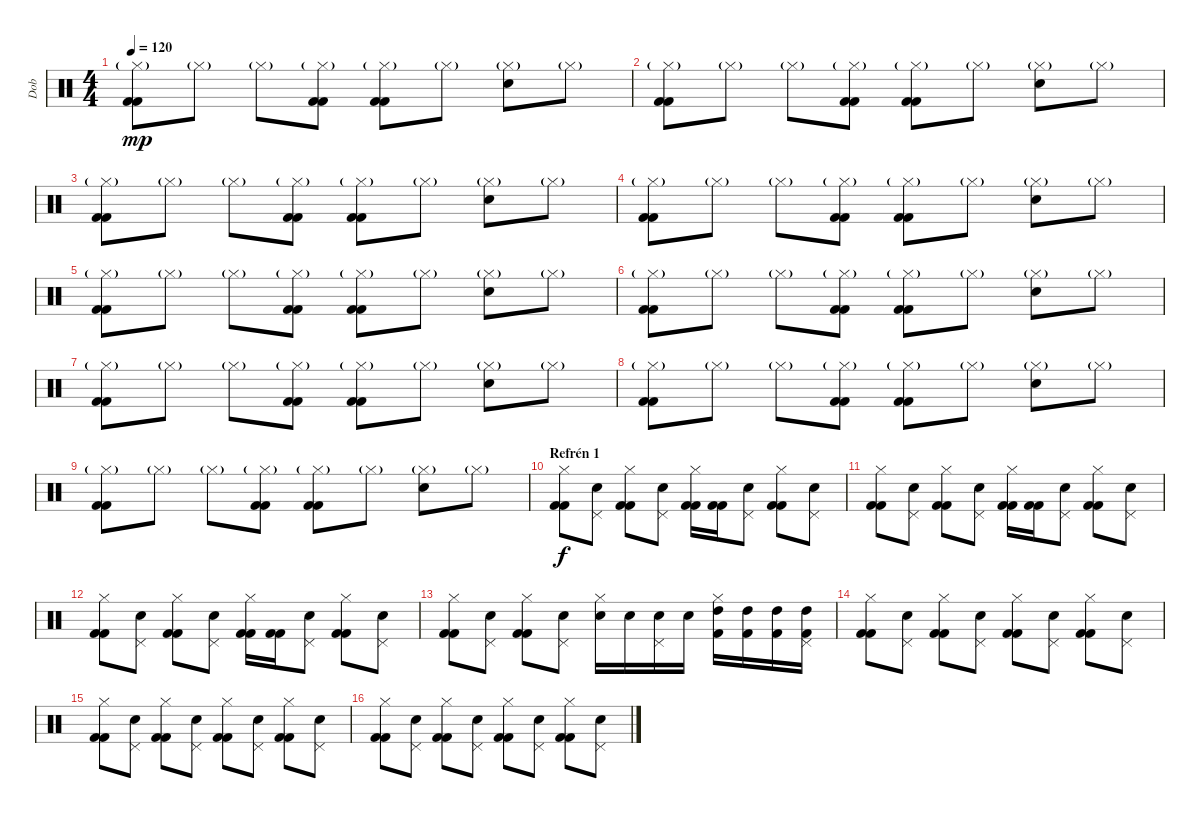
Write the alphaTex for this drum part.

\track ("Dob" "Dob") {instrument percussion}
\staff {score}
\articulation defaults
\ts (4 4)
\tempo 120
\clef neutral
\ks c
("Hi-Hat (closed)"{g} "Kick (hit) 2" "Kick (hit) 2").8{dy mp} "Hi-Hat (closed)"{g}.8 "Hi-Hat (closed)"{g}.8 ("Hi-Hat (closed)"{g} "Kick (hit) 2" "Kick (hit) 2").8 ("Hi-Hat (closed)"{g} "Kick (hit) 2" "Kick (hit) 2").8 "Hi-Hat (closed)"{g}.8 ("Hi-Hat (closed)"{g} "Snare (hit) 2").8 "Hi-Hat (closed)"{g}.8 |
("Hi-Hat (closed)"{g} "Kick (hit) 2" "Kick (hit) 2").8 "Hi-Hat (closed)"{g}.8 "Hi-Hat (closed)"{g}.8 ("Hi-Hat (closed)"{g} "Kick (hit) 2" "Kick (hit) 2").8 ("Hi-Hat (closed)"{g} "Kick (hit) 2" "Kick (hit) 2").8 "Hi-Hat (closed)"{g}.8 ("Hi-Hat (closed)"{g} "Snare (hit) 2").8 "Hi-Hat (closed)"{g}.8 |
("Hi-Hat (closed)"{g} "Kick (hit) 2" "Kick (hit) 2").8 "Hi-Hat (closed)"{g}.8 "Hi-Hat (closed)"{g}.8 ("Hi-Hat (closed)"{g} "Kick (hit) 2" "Kick (hit) 2").8 ("Hi-Hat (closed)"{g} "Kick (hit) 2" "Kick (hit) 2").8 "Hi-Hat (closed)"{g}.8 ("Hi-Hat (closed)"{g} "Snare (hit) 2").8 "Hi-Hat (closed)"{g}.8 |
("Hi-Hat (closed)"{g} "Kick (hit) 2" "Kick (hit) 2").8 "Hi-Hat (closed)"{g}.8 "Hi-Hat (closed)"{g}.8 ("Hi-Hat (closed)"{g} "Kick (hit) 2" "Kick (hit) 2").8 ("Hi-Hat (closed)"{g} "Kick (hit) 2" "Kick (hit) 2").8 "Hi-Hat (closed)"{g}.8 ("Hi-Hat (closed)"{g} "Snare (hit) 2").8 "Hi-Hat (closed)"{g}.8 |
("Hi-Hat (closed)"{g} "Kick (hit) 2" "Kick (hit) 2").8 "Hi-Hat (closed)"{g}.8 "Hi-Hat (closed)"{g}.8 ("Hi-Hat (closed)"{g} "Kick (hit) 2" "Kick (hit) 2").8 ("Hi-Hat (closed)"{g} "Kick (hit) 2" "Kick (hit) 2").8 "Hi-Hat (closed)"{g}.8 ("Hi-Hat (closed)"{g} "Snare (hit) 2").8 "Hi-Hat (closed)"{g}.8 |
("Hi-Hat (closed)"{g} "Kick (hit) 2" "Kick (hit) 2").8 "Hi-Hat (closed)"{g}.8 "Hi-Hat (closed)"{g}.8 ("Hi-Hat (closed)"{g} "Kick (hit) 2" "Kick (hit) 2").8 ("Hi-Hat (closed)"{g} "Kick (hit) 2" "Kick (hit) 2").8 "Hi-Hat (closed)"{g}.8 ("Hi-Hat (closed)"{g} "Snare (hit) 2").8 "Hi-Hat (closed)"{g}.8 |
("Hi-Hat (closed)"{g} "Kick (hit) 2" "Kick (hit) 2").8 "Hi-Hat (closed)"{g}.8 "Hi-Hat (closed)"{g}.8 ("Hi-Hat (closed)"{g} "Kick (hit) 2" "Kick (hit) 2").8 ("Hi-Hat (closed)"{g} "Kick (hit) 2" "Kick (hit) 2").8 "Hi-Hat (closed)"{g}.8 ("Hi-Hat (closed)"{g} "Snare (hit) 2").8 "Hi-Hat (closed)"{g}.8 |
("Hi-Hat (closed)"{g} "Kick (hit) 2" "Kick (hit) 2").8 "Hi-Hat (closed)"{g}.8 "Hi-Hat (closed)"{g}.8 ("Hi-Hat (closed)"{g} "Kick (hit) 2" "Kick (hit) 2").8 ("Hi-Hat (closed)"{g} "Kick (hit) 2" "Kick (hit) 2").8 "Hi-Hat (closed)"{g}.8 ("Hi-Hat (closed)"{g} "Snare (hit) 2").8 "Hi-Hat (closed)"{g}.8 |
("Hi-Hat (closed)"{g} "Kick (hit) 2" "Kick (hit) 2").8 "Hi-Hat (closed)"{g}.8 "Hi-Hat (closed)"{g}.8 ("Hi-Hat (closed)"{g} "Kick (hit) 2" "Kick (hit) 2").8 ("Hi-Hat (closed)"{g} "Kick (hit) 2" "Kick (hit) 2").8 "Hi-Hat (closed)"{g}.8 ("Hi-Hat (closed)"{g} "Snare (hit) 2").8 "Hi-Hat (closed)"{g}.8 |
\section ("" "Refrén 1")
("Hi-Hat (closed)" "Kick (hit) 2" "Kick (hit) 2").8{dy f} ("Pedal Hi-Hat (hit)" "Snare (hit) 2").8 ("Hi-Hat (closed)" "Kick (hit) 2" "Kick (hit) 2").8 ("Pedal Hi-Hat (hit)" "Snare (hit) 2").8 ("Hi-Hat (closed)" "Kick (hit) 2" "Kick (hit) 2").16 ("Kick (hit) 2" "Kick (hit) 2").16 ("Pedal Hi-Hat (hit)" "Snare (hit) 2").8 ("Hi-Hat (closed)" "Kick (hit) 2" "Kick (hit) 2").8 ("Pedal Hi-Hat (hit)" "Snare (hit) 2").8 |
("Hi-Hat (closed)" "Kick (hit) 2" "Kick (hit) 2").8 ("Pedal Hi-Hat (hit)" "Snare (hit) 2").8 ("Hi-Hat (closed)" "Kick (hit) 2" "Kick (hit) 2").8 ("Pedal Hi-Hat (hit)" "Snare (hit) 2").8 ("Hi-Hat (closed)" "Kick (hit) 2" "Kick (hit) 2").16 ("Kick (hit) 2" "Kick (hit) 2").16 ("Pedal Hi-Hat (hit)" "Snare (hit) 2").8 ("Hi-Hat (closed)" "Kick (hit) 2" "Kick (hit) 2").8 ("Pedal Hi-Hat (hit)" "Snare (hit) 2").8 |
("Hi-Hat (closed)" "Kick (hit) 2" "Kick (hit) 2").8 ("Pedal Hi-Hat (hit)" "Snare (hit) 2").8 ("Hi-Hat (closed)" "Kick (hit) 2" "Kick (hit) 2").8 ("Pedal Hi-Hat (hit)" "Snare (hit) 2").8 ("Hi-Hat (closed)" "Kick (hit) 2" "Kick (hit) 2").16 ("Kick (hit) 2" "Kick (hit) 2").16 ("Pedal Hi-Hat (hit)" "Snare (hit) 2").8 ("Hi-Hat (closed)" "Kick (hit) 2" "Kick (hit) 2").8 ("Pedal Hi-Hat (hit)" "Snare (hit) 2").8 |
("Hi-Hat (closed)" "Kick (hit) 2" "Kick (hit) 2").8 ("Pedal Hi-Hat (hit)" "Snare (hit) 2").8 ("Hi-Hat (closed)" "Kick (hit) 2" "Kick (hit) 2").8 ("Pedal Hi-Hat (hit)" "Snare (hit) 2").8 ("Hi-Hat (closed)" "Snare (hit) 2").16 "Snare (hit) 2".16 ("Pedal Hi-Hat (hit)" "Snare (hit) 2").16 "Snare (hit) 2".16 ("Hi-Hat (closed)" "Kick (hit) 2" "High Tom (hit)").16 ("Kick (hit) 2" "High Tom (hit)").16 ("Kick (hit) 2" "High Tom (hit)").16 ("Pedal Hi-Hat (hit)" "Kick (hit) 2" "High Tom (hit)").16 |
("Hi-Hat (closed)" "Kick (hit) 2" "Kick (hit) 2").8 ("Pedal Hi-Hat (hit)" "Snare (hit) 2").8 ("Hi-Hat (closed)" "Kick (hit) 2" "Kick (hit) 2").8 ("Pedal Hi-Hat (hit)" "Snare (hit) 2").8 ("Hi-Hat (closed)" "Kick (hit) 2" "Kick (hit) 2").8 ("Pedal Hi-Hat (hit)" "Snare (hit) 2").8 ("Hi-Hat (closed)" "Kick (hit) 2" "Kick (hit) 2").8 ("Pedal Hi-Hat (hit)" "Snare (hit) 2").8 |
("Hi-Hat (closed)" "Kick (hit) 2" "Kick (hit) 2").8 ("Pedal Hi-Hat (hit)" "Snare (hit) 2").8 ("Hi-Hat (closed)" "Kick (hit) 2" "Kick (hit) 2").8 ("Pedal Hi-Hat (hit)" "Snare (hit) 2").8 ("Hi-Hat (closed)" "Kick (hit) 2" "Kick (hit) 2").8 ("Pedal Hi-Hat (hit)" "Snare (hit) 2").8 ("Hi-Hat (closed)" "Kick (hit) 2" "Kick (hit) 2").8 ("Pedal Hi-Hat (hit)" "Snare (hit) 2").8 |
("Hi-Hat (closed)" "Kick (hit) 2" "Kick (hit) 2").8 ("Pedal Hi-Hat (hit)" "Snare (hit) 2").8 ("Hi-Hat (closed)" "Kick (hit) 2" "Kick (hit) 2").8 ("Pedal Hi-Hat (hit)" "Snare (hit) 2").8 ("Hi-Hat (closed)" "Kick (hit) 2" "Kick (hit) 2").8 ("Pedal Hi-Hat (hit)" "Snare (hit) 2").8 ("Hi-Hat (closed)" "Kick (hit) 2" "Kick (hit) 2").8 ("Pedal Hi-Hat (hit)" "Snare (hit) 2").8
